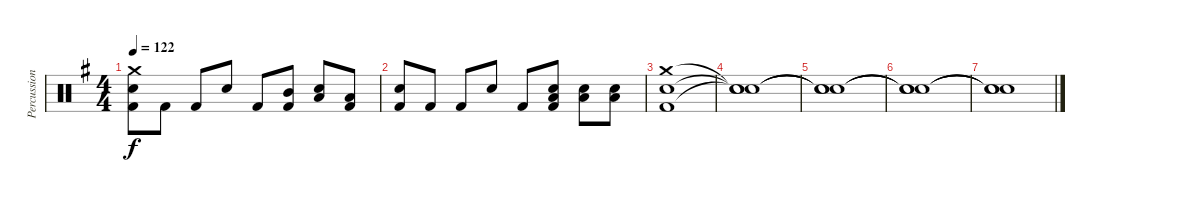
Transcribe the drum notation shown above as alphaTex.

\track ("Percussion" "Percussion") {instrument percussion}
\staff {score}
\articulation defaults
\ts (4 4)
\tempo 122
\clef neutral
\ks g
("Crash medium (hit)" "Snare (hit) 2" "Kick (hit) 2").8{dy f} "Kick (hit) 2".8 "Kick (hit) 2".8 "Snare (hit) 2".8 "Kick (hit) 2".8 ("Mid Tom (hit)" "Kick (hit) 2").8 ("Low Tom (hit)" "Snare (hit) 2").8 ("Low Tom (hit)" "Kick (hit) 2").8 |
("Snare (hit) 2" "Kick (hit) 2").8 "Kick (hit) 2".8 "Kick (hit) 2".8 "Snare (hit) 2".8 "Kick (hit) 2".8 ("Low Tom (hit)" "Snare (hit) 2" "Kick (hit) 2").8 ("Low Tom (hit)" "Snare (hit) 2").8 ("Low Tom (hit)" "Snare (hit) 2").8 |
("Crash medium (hit)" "Snare (hit) 2" "Kick (hit) 2").1 |
("Snare (hit)"{t} "Snare (hit)"{t} "Snare (hit)"{t}).1 |
("Snare (hit)"{t} "Snare (hit)"{t} "Snare (hit)"{t}).1 |
("Snare (hit)"{t} "Snare (hit)"{t} "Snare (hit)"{t}).1 |
("Snare (hit)"{t} "Snare (hit)"{t} "Snare (hit)"{t}).1
